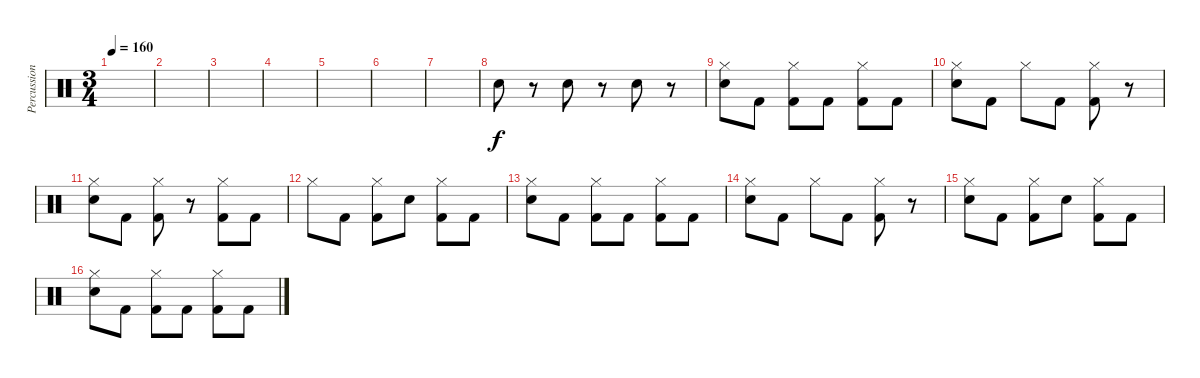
\track ("Percussion" "Percussion") {instrument percussion}
\staff {score}
\articulation defaults
\ts (3 4)
\tempo 160
\clef neutral
\ks c
|
|
|
|
|
|
|
"Electric Snare (hit)".8 r.8 "Electric Snare (hit)".8 r.8 "Electric Snare (hit)".8 r.8 |
("Hi-Hat (closed)" "Electric Snare (hit)").8 "Kick (hit) 2".8 ("Hi-Hat (closed)" "Kick (hit) 2").8 "Kick (hit) 2".8 ("Hi-Hat (closed)" "Kick (hit) 2").8 "Kick (hit) 2".8 |
("Hi-Hat (closed)" "Electric Snare (hit)").8 "Kick (hit) 2".8 "Hi-Hat (closed)".8 "Kick (hit) 2".8 ("Hi-Hat (closed)" "Kick (hit) 2").8 r.8 |
("Hi-Hat (closed)" "Electric Snare (hit)").8 "Kick (hit) 2".8 ("Hi-Hat (closed)" "Kick (hit) 2").8 r.8 ("Hi-Hat (closed)" "Kick (hit) 2").8 "Kick (hit) 2".8 |
"Hi-Hat (closed)".8 "Kick (hit) 2".8 ("Hi-Hat (closed)" "Kick (hit) 2").8 "Electric Snare (hit)".8 ("Hi-Hat (closed)" "Kick (hit) 2").8 "Kick (hit) 2".8 |
("Hi-Hat (closed)" "Electric Snare (hit)").8 "Kick (hit) 2".8 ("Hi-Hat (closed)" "Kick (hit) 2").8 "Kick (hit) 2".8 ("Hi-Hat (closed)" "Kick (hit) 2").8 "Kick (hit) 2".8 |
("Hi-Hat (closed)" "Electric Snare (hit)").8 "Kick (hit) 2".8 "Hi-Hat (closed)".8 "Kick (hit) 2".8 ("Hi-Hat (closed)" "Kick (hit) 2").8 r.8 |
("Hi-Hat (closed)" "Electric Snare (hit)").8 "Kick (hit) 2".8 ("Hi-Hat (closed)" "Kick (hit) 2").8 "Electric Snare (hit)".8 ("Hi-Hat (closed)" "Kick (hit) 2").8 "Kick (hit) 2".8 |
("Hi-Hat (closed)" "Electric Snare (hit)").8 "Kick (hit) 2".8 ("Hi-Hat (closed)" "Kick (hit) 2").8 "Kick (hit) 2".8 ("Hi-Hat (closed)" "Kick (hit) 2").8 "Kick (hit) 2".8
